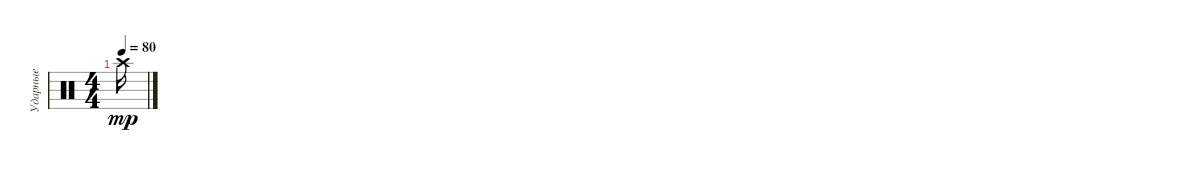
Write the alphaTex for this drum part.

\track ("Ударные" "Ударные") {instrument percussion}
\staff {score}
\articulation defaults
\ts (4 4)
\tempo 80
\clef neutral
\ks c "Crash high (hit)".16{dy mp}
